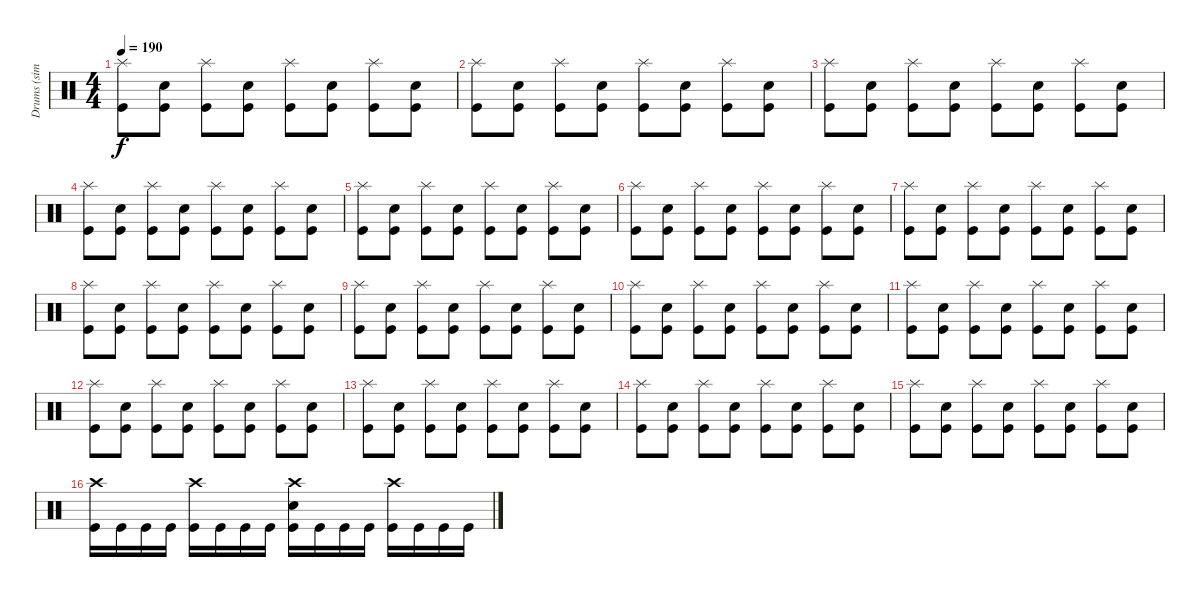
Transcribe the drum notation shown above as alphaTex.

\track ("Drums (simple)" "Drums (sim") {instrument percussion}
\staff {score}
\articulation defaults
\ts (4 4)
\tempo 190
\clef neutral
\ks c
("Splash (hit)" "Kick (hit)").8{dy f} ("Snare (hit) 2" "Kick (hit)").8 ("Splash (hit)" "Kick (hit)").8 ("Snare (hit) 2" "Kick (hit)").8 ("Splash (hit)" "Kick (hit)").8 ("Snare (hit) 2" "Kick (hit)").8 ("Splash (hit)" "Kick (hit)").8 ("Snare (hit) 2" "Kick (hit)").8 |
("Splash (hit)" "Kick (hit)").8 ("Snare (hit) 2" "Kick (hit)").8 ("Splash (hit)" "Kick (hit)").8 ("Snare (hit) 2" "Kick (hit)").8 ("Splash (hit)" "Kick (hit)").8 ("Snare (hit) 2" "Kick (hit)").8 ("Splash (hit)" "Kick (hit)").8 ("Snare (hit) 2" "Kick (hit)").8 |
("Splash (hit)" "Kick (hit)").8 ("Snare (hit) 2" "Kick (hit)").8 ("Splash (hit)" "Kick (hit)").8 ("Snare (hit) 2" "Kick (hit)").8 ("Splash (hit)" "Kick (hit)").8 ("Snare (hit) 2" "Kick (hit)").8 ("Splash (hit)" "Kick (hit)").8 ("Snare (hit) 2" "Kick (hit)").8 |
("Splash (hit)" "Kick (hit)").8 ("Snare (hit) 2" "Kick (hit)").8 ("Splash (hit)" "Kick (hit)").8 ("Snare (hit) 2" "Kick (hit)").8 ("Splash (hit)" "Kick (hit)").8 ("Snare (hit) 2" "Kick (hit)").8 ("Splash (hit)" "Kick (hit)").8 ("Snare (hit) 2" "Kick (hit)").8 |
("Splash (hit)" "Kick (hit)").8 ("Snare (hit) 2" "Kick (hit)").8 ("Splash (hit)" "Kick (hit)").8 ("Snare (hit) 2" "Kick (hit)").8 ("Splash (hit)" "Kick (hit)").8 ("Snare (hit) 2" "Kick (hit)").8 ("Splash (hit)" "Kick (hit)").8 ("Snare (hit) 2" "Kick (hit)").8 |
("Splash (hit)" "Kick (hit)").8 ("Snare (hit) 2" "Kick (hit)").8 ("Splash (hit)" "Kick (hit)").8 ("Snare (hit) 2" "Kick (hit)").8 ("Splash (hit)" "Kick (hit)").8 ("Snare (hit) 2" "Kick (hit)").8 ("Splash (hit)" "Kick (hit)").8 ("Snare (hit) 2" "Kick (hit)").8 |
("Splash (hit)" "Kick (hit)").8 ("Snare (hit) 2" "Kick (hit)").8 ("Splash (hit)" "Kick (hit)").8 ("Snare (hit) 2" "Kick (hit)").8 ("Splash (hit)" "Kick (hit)").8 ("Snare (hit) 2" "Kick (hit)").8 ("Splash (hit)" "Kick (hit)").8 ("Snare (hit) 2" "Kick (hit)").8 |
("Splash (hit)" "Kick (hit)").8 ("Snare (hit) 2" "Kick (hit)").8 ("Splash (hit)" "Kick (hit)").8 ("Snare (hit) 2" "Kick (hit)").8 ("Splash (hit)" "Kick (hit)").8 ("Snare (hit) 2" "Kick (hit)").8 ("Splash (hit)" "Kick (hit)").8 ("Snare (hit) 2" "Kick (hit)").8 |
("Splash (hit)" "Kick (hit)").8 ("Snare (hit) 2" "Kick (hit)").8 ("Splash (hit)" "Kick (hit)").8 ("Snare (hit) 2" "Kick (hit)").8 ("Splash (hit)" "Kick (hit)").8 ("Snare (hit) 2" "Kick (hit)").8 ("Splash (hit)" "Kick (hit)").8 ("Snare (hit) 2" "Kick (hit)").8 |
("Splash (hit)" "Kick (hit)").8 ("Snare (hit) 2" "Kick (hit)").8 ("Splash (hit)" "Kick (hit)").8 ("Snare (hit) 2" "Kick (hit)").8 ("Splash (hit)" "Kick (hit)").8 ("Snare (hit) 2" "Kick (hit)").8 ("Splash (hit)" "Kick (hit)").8 ("Snare (hit) 2" "Kick (hit)").8 |
("Splash (hit)" "Kick (hit)").8 ("Snare (hit) 2" "Kick (hit)").8 ("Splash (hit)" "Kick (hit)").8 ("Snare (hit) 2" "Kick (hit)").8 ("Splash (hit)" "Kick (hit)").8 ("Snare (hit) 2" "Kick (hit)").8 ("Splash (hit)" "Kick (hit)").8 ("Snare (hit) 2" "Kick (hit)").8 |
("Splash (hit)" "Kick (hit)").8 ("Snare (hit) 2" "Kick (hit)").8 ("Splash (hit)" "Kick (hit)").8 ("Snare (hit) 2" "Kick (hit)").8 ("Splash (hit)" "Kick (hit)").8 ("Snare (hit) 2" "Kick (hit)").8 ("Splash (hit)" "Kick (hit)").8 ("Snare (hit) 2" "Kick (hit)").8 |
("Splash (hit)" "Kick (hit)").8 ("Snare (hit) 2" "Kick (hit)").8 ("Splash (hit)" "Kick (hit)").8 ("Snare (hit) 2" "Kick (hit)").8 ("Splash (hit)" "Kick (hit)").8 ("Snare (hit) 2" "Kick (hit)").8 ("Splash (hit)" "Kick (hit)").8 ("Snare (hit) 2" "Kick (hit)").8 |
("Splash (hit)" "Kick (hit)").8 ("Snare (hit) 2" "Kick (hit)").8 ("Splash (hit)" "Kick (hit)").8 ("Snare (hit) 2" "Kick (hit)").8 ("Splash (hit)" "Kick (hit)").8 ("Snare (hit) 2" "Kick (hit)").8 ("Splash (hit)" "Kick (hit)").8 ("Snare (hit) 2" "Kick (hit)").8 |
("Splash (hit)" "Kick (hit)").8 ("Snare (hit) 2" "Kick (hit)").8 ("Splash (hit)" "Kick (hit)").8 ("Snare (hit) 2" "Kick (hit)").8 ("Splash (hit)" "Kick (hit)").8 ("Snare (hit) 2" "Kick (hit)").8 ("Splash (hit)" "Kick (hit)").8 ("Snare (hit) 2" "Kick (hit)").8 |
("Crash high (hit)" "Kick (hit)").16 "Kick (hit)".16 "Kick (hit)".16 "Kick (hit)".16 ("Crash high (hit)" "Kick (hit)").16 "Kick (hit)".16 "Kick (hit)".16 "Kick (hit)".16 ("Crash high (hit)" "Snare (hit) 2" "Kick (hit)").16 "Kick (hit)".16 "Kick (hit)".16 "Kick (hit)".16 ("Crash high (hit)" "Kick (hit)").16 "Kick (hit)".16 "Kick (hit)".16 "Kick (hit)".16
